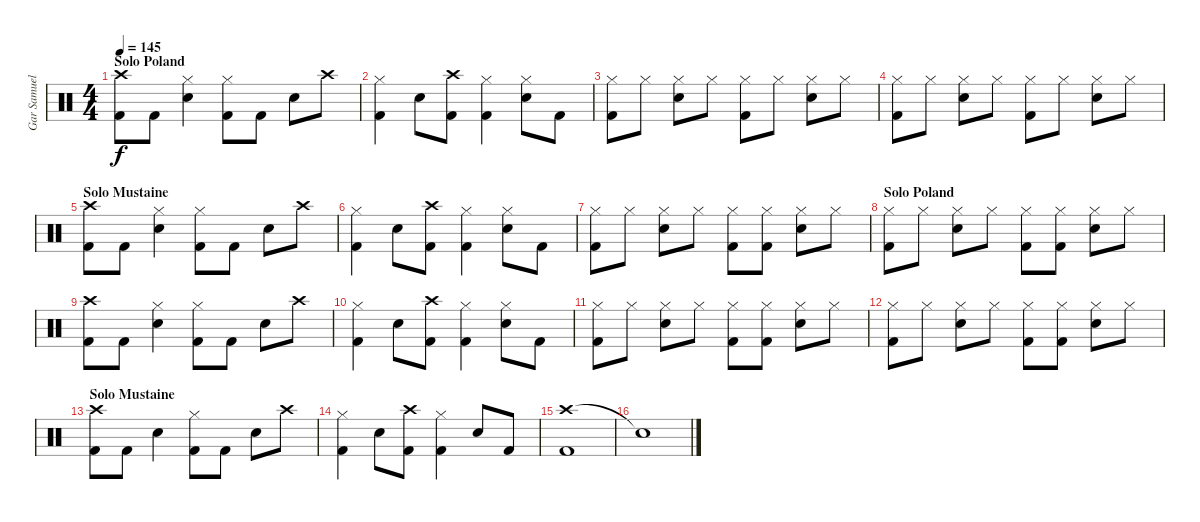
\track ("Gar Samuelson (Drums)" "Gar Samuel") {instrument percussion}
\staff {score}
\articulation defaults
\ts (4 4)
\section ("" "Solo Poland")
\tempo 145
\clef neutral
\ks c
("Crash high (hit)" "Kick (hit) 2").8{dy f} "Kick (hit) 2".8 ("Hi-Hat (closed)" "Electric Snare (hit)").4 ("Hi-Hat (closed)" "Kick (hit) 2").8 "Kick (hit) 2".8 "Electric Snare (hit)".8 "Crash high (hit)".8 |
("Hi-Hat (closed)" "Kick (hit) 2").4 "Electric Snare (hit)".8 ("Crash high (hit)" "Kick (hit) 2").8 ("Hi-Hat (closed)" "Kick (hit) 2").4 ("Hi-Hat (closed)" "Electric Snare (hit)").8 "Kick (hit) 2".8 |
("Hi-Hat (closed)" "Kick (hit) 2").8 "Hi-Hat (closed)".8 ("Hi-Hat (closed)" "Electric Snare (hit)").8 "Hi-Hat (closed)".8 ("Hi-Hat (closed)" "Kick (hit) 2").8 "Hi-Hat (closed)".8 ("Hi-Hat (closed)" "Electric Snare (hit)").8 "Hi-Hat (closed)".8 |
("Hi-Hat (closed)" "Kick (hit) 2").8 "Hi-Hat (closed)".8 ("Hi-Hat (closed)" "Electric Snare (hit)").8 "Hi-Hat (closed)".8 ("Hi-Hat (closed)" "Kick (hit) 2").8 "Hi-Hat (closed)".8 ("Hi-Hat (closed)" "Electric Snare (hit)").8 "Hi-Hat (closed)".8 |
\section ("" "Solo Mustaine")
("Crash high (hit)" "Kick (hit) 2").8 "Kick (hit) 2".8 ("Hi-Hat (closed)" "Electric Snare (hit)").4 ("Hi-Hat (closed)" "Kick (hit) 2").8 "Kick (hit) 2".8 "Electric Snare (hit)".8 "Crash high (hit)".8 |
("Hi-Hat (closed)" "Kick (hit) 2").4 "Electric Snare (hit)".8 ("Crash high (hit)" "Kick (hit) 2").8 ("Hi-Hat (closed)" "Kick (hit) 2").4 ("Hi-Hat (closed)" "Electric Snare (hit)").8 "Kick (hit) 2".8 |
("Hi-Hat (closed)" "Kick (hit) 2").8 "Hi-Hat (closed)".8 ("Hi-Hat (closed)" "Electric Snare (hit)").8 "Hi-Hat (closed)".8 ("Hi-Hat (closed)" "Kick (hit) 2").8 ("Hi-Hat (closed)" "Kick (hit) 2").8 ("Hi-Hat (closed)" "Electric Snare (hit)").8 "Hi-Hat (closed)".8 |
\section ("" "Solo Poland")
("Hi-Hat (closed)" "Kick (hit) 2").8 "Hi-Hat (closed)".8 ("Hi-Hat (closed)" "Electric Snare (hit)").8 "Hi-Hat (closed)".8 ("Hi-Hat (closed)" "Kick (hit) 2").8 ("Hi-Hat (closed)" "Kick (hit) 2").8 ("Hi-Hat (closed)" "Electric Snare (hit)").8 "Hi-Hat (closed)".8 |
("Crash high (hit)" "Kick (hit) 2").8 "Kick (hit) 2".8 ("Hi-Hat (closed)" "Electric Snare (hit)").4 ("Hi-Hat (closed)" "Kick (hit) 2").8 "Kick (hit) 2".8 "Electric Snare (hit)".8 "Crash high (hit)".8 |
("Hi-Hat (closed)" "Kick (hit) 2").4 "Electric Snare (hit)".8 ("Crash high (hit)" "Kick (hit) 2").8 ("Hi-Hat (closed)" "Kick (hit) 2").4 ("Hi-Hat (closed)" "Snare (hit) 2").8 "Kick (hit) 2".8 |
("Hi-Hat (closed)" "Kick (hit) 2").8 "Hi-Hat (closed)".8 ("Hi-Hat (closed)" "Electric Snare (hit)").8 "Hi-Hat (closed)".8 ("Hi-Hat (closed)" "Kick (hit) 2").8 ("Hi-Hat (closed)" "Kick (hit) 2").8 ("Hi-Hat (closed)" "Electric Snare (hit)").8 "Hi-Hat (closed)".8 |
("Hi-Hat (closed)" "Kick (hit) 2").8 "Hi-Hat (closed)".8 ("Hi-Hat (closed)" "Electric Snare (hit)").8 "Hi-Hat (closed)".8 ("Hi-Hat (closed)" "Kick (hit) 2").8 ("Hi-Hat (closed)" "Kick (hit) 2").8 ("Hi-Hat (closed)" "Electric Snare (hit)").8 "Hi-Hat (closed)".8 |
\section ("" "Solo Mustaine")
("Crash high (hit)" "Kick (hit) 2").8 "Kick (hit) 2".8 "Electric Snare (hit)".4 ("Hi-Hat (closed)" "Kick (hit) 2").8 "Kick (hit) 2".8 "Electric Snare (hit)".8 "Crash high (hit)".8 |
("Hi-Hat (closed)" "Kick (hit) 2").4 "Electric Snare (hit)".8 ("Crash high (hit)" "Kick (hit) 2").8 ("Hi-Hat (closed)" "Kick (hit) 2").4 "Electric Snare (hit)".8 "Kick (hit) 2".8 |
("Crash high (hit)" "Kick (hit) 2").1 |
"Snare (hit)"{t}.1
